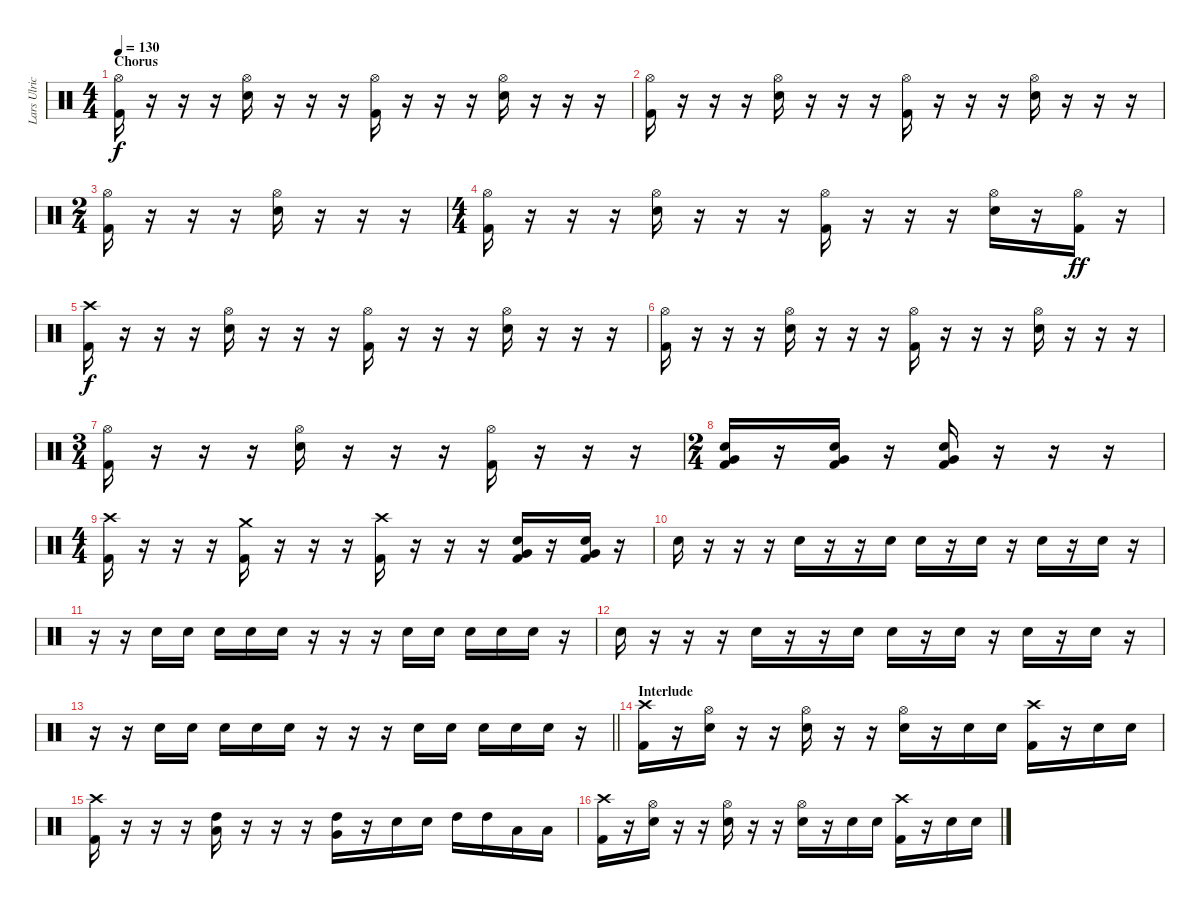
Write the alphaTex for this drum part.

\track ("Lars Ulrich" "Lars Ulric") {instrument percussion}
\staff {score}
\articulation defaults
\ts (4 4)
\section ("" "Chorus")
\tempo 130
\clef neutral
\ks c
("Hi-Hat (open)" "Kick (hit) 2").16{dy f} r.16 r.16 r.16 ("Electric Snare (hit)" "Hi-Hat (open)").16 r.16 r.16 r.16 ("Hi-Hat (open)" "Kick (hit) 2").16 r.16 r.16 r.16 ("Electric Snare (hit)" "Hi-Hat (open)").16 r.16 r.16 r.16 |
("Hi-Hat (open)" "Kick (hit) 2").16 r.16 r.16 r.16 ("Electric Snare (hit)" "Hi-Hat (open)").16 r.16 r.16 r.16 ("Hi-Hat (open)" "Kick (hit) 2").16 r.16 r.16 r.16 ("Electric Snare (hit)" "Hi-Hat (open)").16 r.16 r.16 r.16 |
\ts (2 4)
("Hi-Hat (open)" "Kick (hit) 2").16 r.16 r.16 r.16 ("Electric Snare (hit)" "Hi-Hat (open)").16 r.16 r.16 r.16 |
\ts (4 4)
("Hi-Hat (open)" "Kick (hit) 2").16 r.16 r.16 r.16 ("Electric Snare (hit)" "Hi-Hat (open)").16 r.16 r.16 r.16 ("Hi-Hat (open)" "Kick (hit) 2").16 r.16 r.16 r.16 ("Electric Snare (hit)" "Hi-Hat (open)").16 r.16 ("Hi-Hat (open)" "Kick (hit) 2").16{dy ff} r.16 |
("Crash high (hit)" "Kick (hit) 2").16{dy f} r.16 r.16 r.16 ("Electric Snare (hit)" "Hi-Hat (open)").16 r.16 r.16 r.16 ("Hi-Hat (open)" "Kick (hit) 2").16 r.16 r.16 r.16 ("Electric Snare (hit)" "Hi-Hat (open)").16 r.16 r.16 r.16 |
("Hi-Hat (open)" "Kick (hit) 2").16 r.16 r.16 r.16 ("Electric Snare (hit)" "Hi-Hat (open)").16 r.16 r.16 r.16 ("Hi-Hat (open)" "Kick (hit) 2").16 r.16 r.16 r.16 ("Electric Snare (hit)" "Hi-Hat (open)").16 r.16 r.16 r.16 |
\ts (3 4)
("Hi-Hat (open)" "Kick (hit) 2").16 r.16 r.16 r.16 ("Electric Snare (hit)" "Hi-Hat (open)").16 r.16 r.16 r.16 ("Hi-Hat (open)" "Kick (hit) 2").16 r.16 r.16 r.16 |
\ts (2 4)
("Electric Snare (hit)" "Very Low Tom (hit)" "Kick (hit) 2").16 r.16 ("Electric Snare (hit)" "Very Low Tom (hit)" "Kick (hit) 2").16 r.16 ("Electric Snare (hit)" "Very Low Tom (hit)" "Kick (hit) 2").16 r.16 r.16 r.16 |
\ts (4 4)
("Crash high (hit)" "Kick (hit) 2").16 r.16 r.16 r.16 ("Crash medium (hit)" "Kick (hit) 2").16 r.16 r.16 r.16 ("Crash high (hit)" "Kick (hit) 2").16 r.16 r.16 r.16 ("Electric Snare (hit)" "Very Low Tom (hit)" "Kick (hit) 2").16 r.16 ("Electric Snare (hit)" "Very Low Tom (hit)" "Kick (hit) 2").16 r.16 |
"Electric Snare (hit)".16 r.16 r.16 r.16 "Electric Snare (hit)".16 r.16 r.16 "Electric Snare (hit)".16 "Electric Snare (hit)".16 r.16 "Electric Snare (hit)".16 r.16 "Electric Snare (hit)".16 r.16 "Electric Snare (hit)".16 r.16 |
r.16 r.16 "Electric Snare (hit)".16 "Electric Snare (hit)".16 "Electric Snare (hit)".16 "Electric Snare (hit)".16 "Electric Snare (hit)".16 r.16 r.16 r.16 "Electric Snare (hit)".16 "Electric Snare (hit)".16 "Electric Snare (hit)".16 "Electric Snare (hit)".16 "Electric Snare (hit)".16 r.16 |
"Electric Snare (hit)".16 r.16 r.16 r.16 "Electric Snare (hit)".16 r.16 r.16 "Electric Snare (hit)".16 "Electric Snare (hit)".16 r.16 "Electric Snare (hit)".16 r.16 "Electric Snare (hit)".16 r.16 "Electric Snare (hit)".16 r.16 |
\barLineRight lightlight
r.16 r.16 "Electric Snare (hit)".16 "Electric Snare (hit)".16 "Electric Snare (hit)".16 "Electric Snare (hit)".16 "Electric Snare (hit)".16 r.16 r.16 r.16 "Electric Snare (hit)".16 "Electric Snare (hit)".16 "Electric Snare (hit)".16 "Electric Snare (hit)".16 "Electric Snare (hit)".16 r.16 |
\section ("" "Interlude")
("Crash high (hit)" "Kick (hit) 2").16 r.16 ("Electric Snare (hit)" "Hi-Hat (open)").16 r.16 r.16 ("Electric Snare (hit)" "Hi-Hat (open)").16 r.16 r.16 ("Electric Snare (hit)" "Hi-Hat (open)").16 r.16 "Electric Snare (hit)".16 "Electric Snare (hit)".16 ("Crash high (hit)" "Kick (hit) 2").16 r.16 "Electric Snare (hit)".16 "Electric Snare (hit)".16 |
("Crash high (hit)" "Kick (hit) 2").16 r.16 r.16 r.16 ("Low Tom (hit)" "High Tom (hit)").16 r.16 r.16 r.16 ("Very Low Tom (hit)" "High Tom (hit)").16 r.16 "Electric Snare (hit)".16 "Electric Snare (hit)".16 "High Tom (hit)".16 "High Tom (hit)".16 "Low Tom (hit)".16 "Low Tom (hit)".16 |
("Crash high (hit)" "Kick (hit) 2").16 r.16 ("Electric Snare (hit)" "Hi-Hat (open)").16 r.16 r.16 ("Electric Snare (hit)" "Hi-Hat (open)").16 r.16 r.16 ("Electric Snare (hit)" "Hi-Hat (open)").16 r.16 "Electric Snare (hit)".16 "Electric Snare (hit)".16 ("Crash high (hit)" "Kick (hit) 2").16 r.16 "Electric Snare (hit)".16 "Electric Snare (hit)".16
